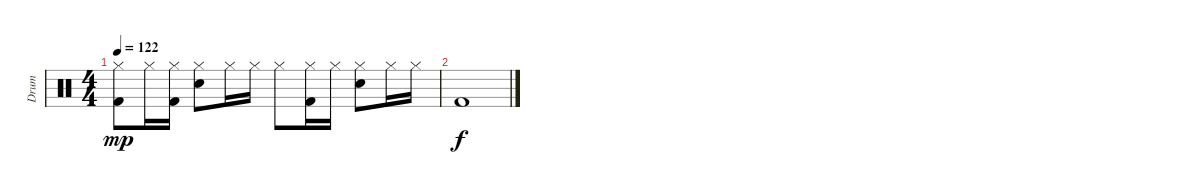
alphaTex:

\track ("Drum" "Drum") {instrument percussion}
\staff {score}
\articulation defaults
\ts (4 4)
\tempo 122
\clef neutral
\ks c
("Hi-Hat (closed)" "Kick (hit) 2").8{dy mp} "Hi-Hat (closed)".16 ("Hi-Hat (closed)" "Kick (hit) 2").16 ("Hi-Hat (closed)" "Electric Snare (hit)").8 "Hi-Hat (closed)".16 "Hi-Hat (closed)".16 "Hi-Hat (closed)".8 ("Hi-Hat (closed)" "Kick (hit) 2").16 "Hi-Hat (closed)".16 ("Hi-Hat (closed)" "Electric Snare (hit)").8 "Hi-Hat (closed)".16 "Hi-Hat (closed)".16 |
"Kick (hit) 2".1{dy f}
